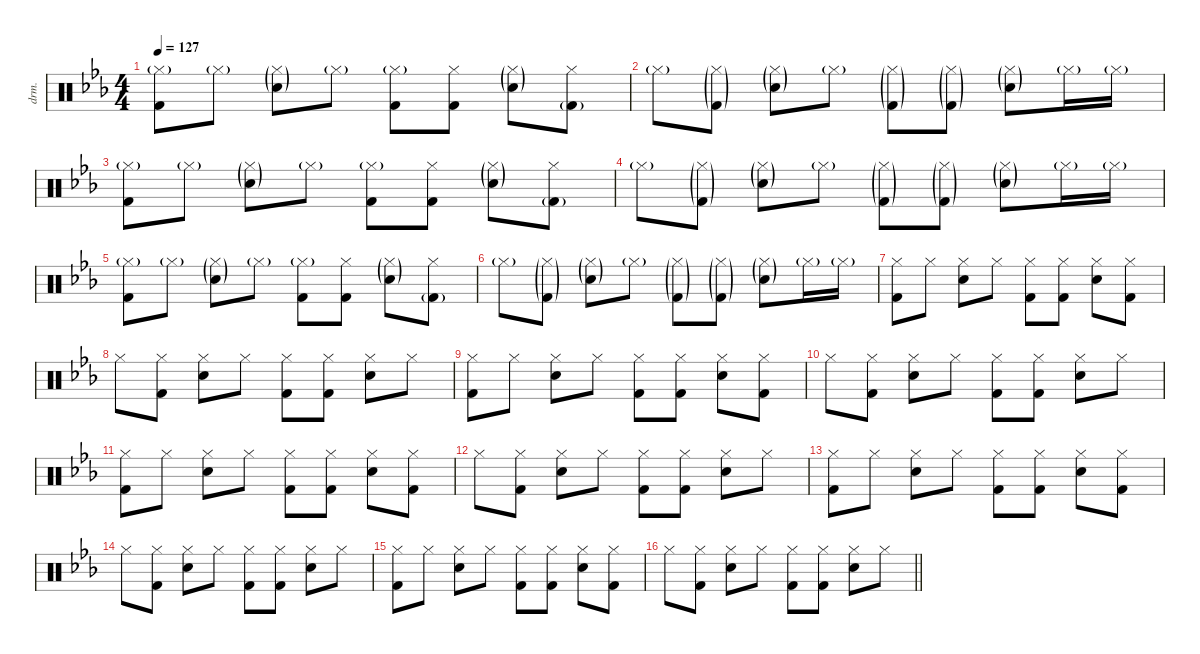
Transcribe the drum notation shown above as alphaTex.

\defaultSystemsLayout 4
\hideDynamics
\bracketExtendMode nobrackets
\otherSystemsTrackNameOrientation horizontal
\track ("Drums" "drm.") {defaultSystemsLayout 4 instrument percussion}
\staff {score}
\articulation defaults
\ts (4 4)
\tempo 127
\clef neutral
\ks eb
("Hi-Hat (closed)"{g acc forcenatural} "Kick (hit) 2"{acc forcenatural}).8{dy mp beam Down} "Hi-Hat (closed)"{g acc forcenatural}.8{dy mf beam Down} ("Hi-Hat (closed)"{g acc forcenatural} "Snare (hit) 2"{g acc forcenatural}).8{beam Down} "Hi-Hat (closed)"{g acc forcenatural}.8{beam Down} ("Hi-Hat (closed)"{g acc forcenatural} "Kick (hit) 2"{acc forcenatural}).8{dy f beam Down} ("Hi-Hat (closed)"{acc forcenatural} "Kick (hit) 2"{acc forcenatural}).8{beam Down} ("Hi-Hat (closed)"{g acc forcenatural} "Snare (hit) 2"{g acc forcenatural}).8{dy mf beam Down} ("Hi-Hat (closed)"{acc forcenatural} "Kick (hit) 2"{g acc forcenatural}).8{dy f beam Down} |
"Hi-Hat (closed)"{g acc forcenatural}.8{dy mf beam Down} ("Hi-Hat (closed)"{g acc forcenatural} "Kick (hit) 2"{g acc forcenatural}).8{beam Down} ("Hi-Hat (closed)"{g acc forcenatural} "Snare (hit) 2"{g acc forcenatural}).8{beam Down} "Hi-Hat (closed)"{g acc forcenatural}.8{beam Down} ("Hi-Hat (closed)"{g acc forcenatural} "Kick (hit) 2"{g acc forcenatural}).8{beam Down} ("Hi-Hat (closed)"{g acc forcenatural} "Kick (hit) 2"{g acc forcenatural}).8{beam Down} ("Hi-Hat (closed)"{g acc forcenatural} "Snare (hit) 2"{g acc forcenatural}).8{dy ff beam Down} "Hi-Hat (closed)"{g acc forcenatural}.16{dy mf beam Down} "Hi-Hat (closed)"{g acc forcenatural}.16{beam Down} |
("Hi-Hat (closed)"{g acc forcenatural} "Kick (hit) 2"{acc forcenatural}).8{dy f beam Down} "Hi-Hat (closed)"{g acc forcenatural}.8{dy mf beam Down} ("Hi-Hat (closed)"{g acc forcenatural} "Snare (hit) 2"{g acc forcenatural}).8{beam Down} "Hi-Hat (closed)"{g acc forcenatural}.8{beam Down} ("Hi-Hat (closed)"{g acc forcenatural} "Kick (hit) 2"{acc forcenatural}).8{dy f beam Down} ("Hi-Hat (closed)"{acc forcenatural} "Kick (hit) 2"{acc forcenatural}).8{beam Down} ("Hi-Hat (closed)"{g acc forcenatural} "Snare (hit) 2"{g acc forcenatural}).8{dy mf beam Down} ("Hi-Hat (closed)"{acc forcenatural} "Kick (hit) 2"{g acc forcenatural}).8{dy f beam Down} |
"Hi-Hat (closed)"{g acc forcenatural}.8{dy mf beam Down} ("Hi-Hat (closed)"{g acc forcenatural} "Kick (hit) 2"{g acc forcenatural}).8{beam Down} ("Hi-Hat (closed)"{g acc forcenatural} "Snare (hit) 2"{g acc forcenatural}).8{beam Down} "Hi-Hat (closed)"{g acc forcenatural}.8{beam Down} ("Hi-Hat (closed)"{g acc forcenatural} "Kick (hit) 2"{g acc forcenatural}).8{beam Down} ("Hi-Hat (closed)"{g acc forcenatural} "Kick (hit) 2"{g acc forcenatural}).8{beam Down} ("Hi-Hat (closed)"{g acc forcenatural} "Snare (hit) 2"{g acc forcenatural}).8{beam Down} "Hi-Hat (closed)"{g acc forcenatural}.16{beam Down} "Hi-Hat (closed)"{g acc forcenatural}.16{beam Down} |
("Hi-Hat (closed)"{g acc forcenatural} "Kick (hit) 2"{acc forcenatural}).8{dy f beam Down} "Hi-Hat (closed)"{g acc forcenatural}.8{dy ff beam Down} ("Hi-Hat (closed)"{g acc forcenatural} "Snare (hit) 2"{g acc forcenatural}).8{dy mf beam Down} "Hi-Hat (closed)"{g acc forcenatural}.8{beam Down} ("Hi-Hat (closed)"{g acc forcenatural} "Kick (hit) 2"{acc forcenatural}).8{dy f beam Down} ("Hi-Hat (closed)"{acc forcenatural} "Kick (hit) 2"{acc forcenatural}).8{beam Down} ("Hi-Hat (closed)"{g acc forcenatural} "Snare (hit) 2"{g acc forcenatural}).8{dy mf beam Down} ("Hi-Hat (closed)"{acc forcenatural} "Kick (hit) 2"{g acc forcenatural}).8{dy f beam Down} |
"Hi-Hat (closed)"{g acc forcenatural}.8{dy mf beam Down} ("Hi-Hat (closed)"{g acc forcenatural} "Kick (hit) 2"{g acc forcenatural}).8{beam Down} ("Hi-Hat (closed)"{g acc forcenatural} "Snare (hit) 2"{g acc forcenatural}).8{dy ff beam Down} "Hi-Hat (closed)"{g acc forcenatural}.8{dy f beam Down} ("Hi-Hat (closed)"{g acc forcenatural} "Kick (hit) 2"{g acc forcenatural}).8{beam Down} ("Hi-Hat (closed)"{g acc forcenatural} "Kick (hit) 2"{g acc forcenatural}).8{dy ff beam Down} ("Hi-Hat (closed)"{g acc forcenatural} "Snare (hit) 2"{g acc forcenatural}).8{dy mf beam Down} "Hi-Hat (closed)"{g acc forcenatural}.16{dy ff beam Down} "Hi-Hat (closed)"{g acc forcenatural}.16{beam Down} |
("Hi-Hat (closed)"{acc forcenatural} "Kick (hit) 2"{acc forcenatural}).8{dy f beam Down} "Hi-Hat (closed)"{acc forcenatural}.8{beam Down} ("Hi-Hat (closed)"{acc forcenatural} "Snare (hit) 2"{acc forcenatural}).8{beam Down} "Hi-Hat (closed)"{acc forcenatural}.8{beam Down} ("Hi-Hat (closed)"{acc forcenatural} "Kick (hit) 2"{acc forcenatural}).8{beam Down} ("Hi-Hat (closed)"{acc forcenatural} "Kick (hit) 2"{acc forcenatural}).8{beam Down} ("Hi-Hat (closed)"{acc forcenatural} "Snare (hit) 2"{acc forcenatural}).8{beam Down} ("Hi-Hat (closed)"{acc forcenatural} "Kick (hit) 2"{acc forcenatural}).8{beam Down} |
"Hi-Hat (closed)"{acc forcenatural}.8{beam Down} ("Hi-Hat (closed)"{acc forcenatural} "Kick (hit) 2"{acc forcenatural}).8{beam Down} ("Hi-Hat (closed)"{acc forcenatural} "Snare (hit) 2"{acc forcenatural}).8{beam Down} "Hi-Hat (closed)"{acc forcenatural}.8{beam Down} ("Hi-Hat (closed)"{acc forcenatural} "Kick (hit) 2"{acc forcenatural}).8{beam Down} ("Hi-Hat (closed)"{acc forcenatural} "Kick (hit) 2"{acc forcenatural}).8{beam Down} ("Hi-Hat (closed)"{acc forcenatural} "Snare (hit) 2"{acc forcenatural}).8{beam Down} "Hi-Hat (closed)"{acc forcenatural}.8{beam Down} |
("Hi-Hat (closed)"{acc forcenatural} "Kick (hit) 2"{acc forcenatural}).8{beam Down} "Hi-Hat (closed)"{acc forcenatural}.8{beam Down} ("Hi-Hat (closed)"{acc forcenatural} "Snare (hit) 2"{acc forcenatural}).8{beam Down} "Hi-Hat (closed)"{acc forcenatural}.8{beam Down} ("Hi-Hat (closed)"{acc forcenatural} "Kick (hit) 2"{acc forcenatural}).8{beam Down} ("Hi-Hat (closed)"{acc forcenatural} "Kick (hit) 2"{acc forcenatural}).8{beam Down} ("Hi-Hat (closed)"{acc forcenatural} "Snare (hit) 2"{acc forcenatural}).8{beam Down} ("Hi-Hat (closed)"{acc forcenatural} "Kick (hit) 2"{acc forcenatural}).8{beam Down} |
"Hi-Hat (closed)"{acc forcenatural}.8{beam Down} ("Hi-Hat (closed)"{acc forcenatural} "Kick (hit) 2"{acc forcenatural}).8{beam Down} ("Hi-Hat (closed)"{acc forcenatural} "Snare (hit) 2"{acc forcenatural}).8{beam Down} "Hi-Hat (closed)"{acc forcenatural}.8{beam Down} ("Hi-Hat (closed)"{acc forcenatural} "Kick (hit) 2"{acc forcenatural}).8{beam Down} ("Hi-Hat (closed)"{acc forcenatural} "Kick (hit) 2"{acc forcenatural}).8{beam Down} ("Hi-Hat (closed)"{acc forcenatural} "Snare (hit) 2"{acc forcenatural}).8{beam Down} "Hi-Hat (closed)"{acc forcenatural}.8{beam Down} |
("Hi-Hat (closed)"{acc forcenatural} "Kick (hit) 2"{acc forcenatural}).8{beam Down} "Hi-Hat (closed)"{acc forcenatural}.8{beam Down} ("Hi-Hat (closed)"{acc forcenatural} "Snare (hit) 2"{acc forcenatural}).8{beam Down} "Hi-Hat (closed)"{acc forcenatural}.8{beam Down} ("Hi-Hat (closed)"{acc forcenatural} "Kick (hit) 2"{acc forcenatural}).8{beam Down} ("Hi-Hat (closed)"{acc forcenatural} "Kick (hit) 2"{acc forcenatural}).8{beam Down} ("Hi-Hat (closed)"{acc forcenatural} "Snare (hit) 2"{acc forcenatural}).8{beam Down} ("Hi-Hat (closed)"{acc forcenatural} "Kick (hit) 2"{acc forcenatural}).8{beam Down} |
"Hi-Hat (closed)"{acc forcenatural}.8{beam Down} ("Hi-Hat (closed)"{acc forcenatural} "Kick (hit) 2"{acc forcenatural}).8{beam Down} ("Hi-Hat (closed)"{acc forcenatural} "Snare (hit) 2"{acc forcenatural}).8{beam Down} "Hi-Hat (closed)"{acc forcenatural}.8{beam Down} ("Hi-Hat (closed)"{acc forcenatural} "Kick (hit) 2"{acc forcenatural}).8{beam Down} ("Hi-Hat (closed)"{acc forcenatural} "Kick (hit) 2"{acc forcenatural}).8{beam Down} ("Hi-Hat (closed)"{acc forcenatural} "Snare (hit) 2"{acc forcenatural}).8{beam Down} "Hi-Hat (closed)"{acc forcenatural}.8{beam Down} |
("Hi-Hat (closed)"{acc forcenatural} "Kick (hit) 2"{acc forcenatural}).8{beam Down} "Hi-Hat (closed)"{acc forcenatural}.8{beam Down} ("Hi-Hat (closed)"{acc forcenatural} "Snare (hit) 2"{acc forcenatural}).8{beam Down} "Hi-Hat (closed)"{acc forcenatural}.8{beam Down} ("Hi-Hat (closed)"{acc forcenatural} "Kick (hit) 2"{acc forcenatural}).8{beam Down} ("Hi-Hat (closed)"{acc forcenatural} "Kick (hit) 2"{acc forcenatural}).8{beam Down} ("Hi-Hat (closed)"{acc forcenatural} "Snare (hit) 2"{acc forcenatural}).8{beam Down} ("Hi-Hat (closed)"{acc forcenatural} "Kick (hit) 2"{acc forcenatural}).8{beam Down} |
"Hi-Hat (closed)"{acc forcenatural}.8{beam Down} ("Hi-Hat (closed)"{acc forcenatural} "Kick (hit) 2"{acc forcenatural}).8{beam Down} ("Hi-Hat (closed)"{acc forcenatural} "Snare (hit) 2"{acc forcenatural}).8{beam Down} "Hi-Hat (closed)"{acc forcenatural}.8{beam Down} ("Hi-Hat (closed)"{acc forcenatural} "Kick (hit) 2"{acc forcenatural}).8{beam Down} ("Hi-Hat (closed)"{acc forcenatural} "Kick (hit) 2"{acc forcenatural}).8{beam Down} ("Hi-Hat (closed)"{acc forcenatural} "Snare (hit) 2"{acc forcenatural}).8{beam Down} "Hi-Hat (closed)"{acc forcenatural}.8{beam Down} |
("Hi-Hat (closed)"{acc forcenatural} "Kick (hit) 2"{acc forcenatural}).8{beam Down} "Hi-Hat (closed)"{acc forcenatural}.8{beam Down} ("Hi-Hat (closed)"{acc forcenatural} "Snare (hit) 2"{acc forcenatural}).8{beam Down} "Hi-Hat (closed)"{acc forcenatural}.8{beam Down} ("Hi-Hat (closed)"{acc forcenatural} "Kick (hit) 2"{acc forcenatural}).8{beam Down} ("Hi-Hat (closed)"{acc forcenatural} "Kick (hit) 2"{acc forcenatural}).8{beam Down} ("Hi-Hat (closed)"{acc forcenatural} "Snare (hit) 2"{acc forcenatural}).8{beam Down} ("Hi-Hat (closed)"{acc forcenatural} "Kick (hit) 2"{acc forcenatural}).8{beam Down} |
\barLineRight lightlight "Hi-Hat (closed)"{acc forcenatural}.8{beam Down}
("Hi-Hat (closed)"{acc forcenatural} "Kick (hit) 2"{acc forcenatural}).8{beam Down} ("Hi-Hat (closed)"{acc forcenatural} "Snare (hit) 2"{acc forcenatural}).8{beam Down} "Hi-Hat (closed)"{acc forcenatural}.8{beam Down} ("Hi-Hat (closed)"{acc forcenatural} "Kick (hit) 2"{acc forcenatural}).8{beam Down} ("Hi-Hat (closed)"{acc forcenatural} "Kick (hit) 2"{acc forcenatural}).8{beam Down} ("Hi-Hat (closed)"{acc forcenatural} "Snare (hit) 2"{acc forcenatural}).8{beam Down} "Hi-Hat (closed)"{acc forcenatural}.8{beam Down}
